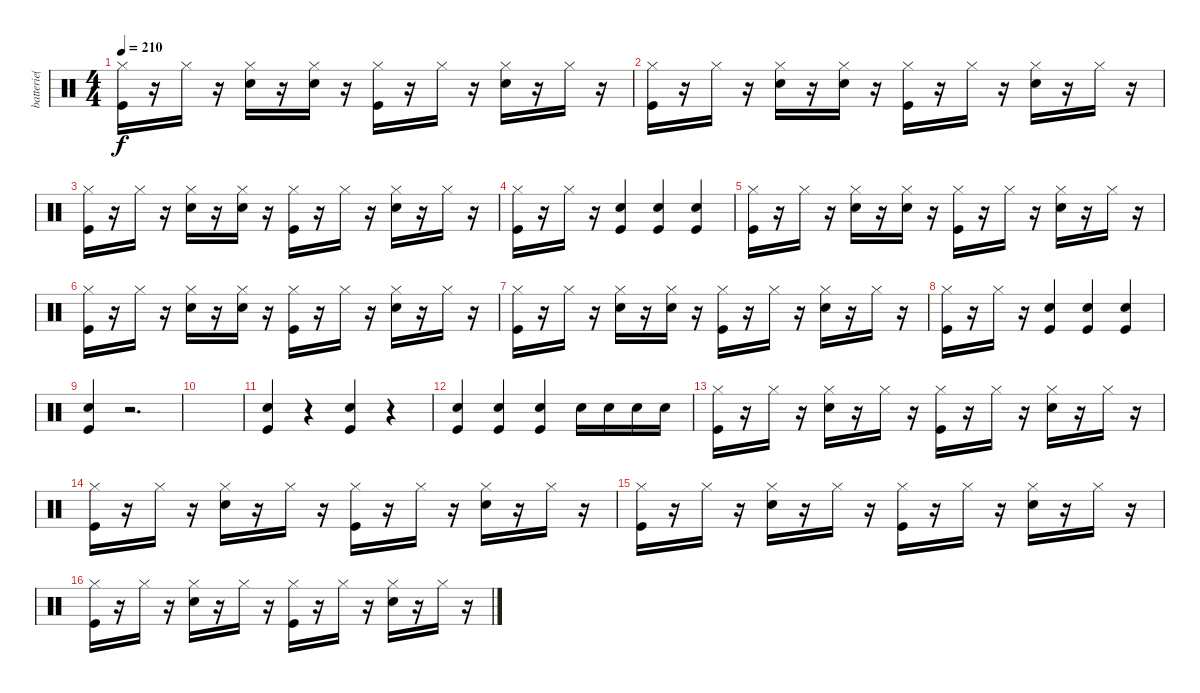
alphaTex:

\track ("batterie( Michael Davison )" "batterie( ") {instrument percussion}
\staff {score}
\articulation defaults
\ts (4 4)
\tempo 210
\clef neutral
\ks c
("Hi-Hat (closed)" "Kick (hit)").16{dy f} r.16 "Hi-Hat (closed)".16 r.16 ("Hi-Hat (closed)" "Snare (hit) 2").16 r.16 ("Hi-Hat (closed)" "Snare (hit) 2").16 r.16 ("Hi-Hat (closed)" "Kick (hit)").16 r.16 "Hi-Hat (closed)".16 r.16 ("Hi-Hat (closed)" "Snare (hit) 2").16 r.16 "Hi-Hat (closed)".16 r.16 |
("Hi-Hat (closed)" "Kick (hit)").16 r.16 "Hi-Hat (closed)".16 r.16 ("Hi-Hat (closed)" "Snare (hit) 2").16 r.16 ("Hi-Hat (closed)" "Snare (hit) 2").16 r.16 ("Hi-Hat (closed)" "Kick (hit)").16 r.16 "Hi-Hat (closed)".16 r.16 ("Hi-Hat (closed)" "Snare (hit) 2").16 r.16 "Hi-Hat (closed)".16 r.16 |
("Hi-Hat (closed)" "Kick (hit)").16 r.16 "Hi-Hat (closed)".16 r.16 ("Hi-Hat (closed)" "Snare (hit) 2").16 r.16 ("Hi-Hat (closed)" "Snare (hit) 2").16 r.16 ("Hi-Hat (closed)" "Kick (hit)").16 r.16 "Hi-Hat (closed)".16 r.16 ("Hi-Hat (closed)" "Snare (hit) 2").16 r.16 "Hi-Hat (closed)".16 r.16 |
("Hi-Hat (closed)" "Kick (hit)").16 r.16 "Hi-Hat (closed)".16 r.16 ("Snare (hit) 2" "Kick (hit)").4 ("Snare (hit) 2" "Kick (hit)").4 ("Snare (hit) 2" "Kick (hit)").4 |
("Hi-Hat (closed)" "Kick (hit)").16 r.16 "Hi-Hat (closed)".16 r.16 ("Hi-Hat (closed)" "Snare (hit) 2").16 r.16 ("Hi-Hat (closed)" "Snare (hit) 2").16 r.16 ("Hi-Hat (closed)" "Kick (hit)").16 r.16 "Hi-Hat (closed)".16 r.16 ("Hi-Hat (closed)" "Snare (hit) 2").16 r.16 "Hi-Hat (closed)".16 r.16 |
("Hi-Hat (closed)" "Kick (hit)").16 r.16 "Hi-Hat (closed)".16 r.16 ("Hi-Hat (closed)" "Snare (hit) 2").16 r.16 ("Hi-Hat (closed)" "Snare (hit) 2").16 r.16 ("Hi-Hat (closed)" "Kick (hit)").16 r.16 "Hi-Hat (closed)".16 r.16 ("Hi-Hat (closed)" "Snare (hit) 2").16 r.16 "Hi-Hat (closed)".16 r.16 |
("Hi-Hat (closed)" "Kick (hit)").16 r.16 "Hi-Hat (closed)".16 r.16 ("Hi-Hat (closed)" "Snare (hit) 2").16 r.16 ("Hi-Hat (closed)" "Snare (hit) 2").16 r.16 ("Hi-Hat (closed)" "Kick (hit)").16 r.16 "Hi-Hat (closed)".16 r.16 ("Hi-Hat (closed)" "Snare (hit) 2").16 r.16 "Hi-Hat (closed)".16 r.16 |
("Hi-Hat (closed)" "Kick (hit)").16 r.16 "Hi-Hat (closed)".16 r.16 ("Snare (hit) 2" "Kick (hit)").4 ("Snare (hit) 2" "Kick (hit)").4 ("Snare (hit) 2" "Kick (hit)").4 |
("Snare (hit) 2" "Kick (hit)").4 r.2{d} |
|
("Snare (hit) 2" "Kick (hit)").4 r.4 ("Snare (hit) 2" "Kick (hit)").4 r.4 |
("Snare (hit) 2" "Kick (hit)").4 ("Snare (hit) 2" "Kick (hit)").4 ("Snare (hit) 2" "Kick (hit)").4 "Snare (hit) 2".16 "Snare (hit) 2".16 "Snare (hit) 2".16 "Snare (hit) 2".16 |
("Hi-Hat (closed)" "Kick (hit)").16 r.16 "Hi-Hat (closed)".16 r.16 ("Hi-Hat (closed)" "Snare (hit) 2").16 r.16 "Hi-Hat (closed)".16 r.16 ("Hi-Hat (closed)" "Kick (hit)").16 r.16 "Hi-Hat (closed)".16 r.16 ("Hi-Hat (closed)" "Snare (hit) 2").16 r.16 "Hi-Hat (closed)".16 r.16 |
("Hi-Hat (closed)" "Kick (hit)").16 r.16 "Hi-Hat (closed)".16 r.16 ("Hi-Hat (closed)" "Snare (hit) 2").16 r.16 "Hi-Hat (closed)".16 r.16 ("Hi-Hat (closed)" "Kick (hit)").16 r.16 "Hi-Hat (closed)".16 r.16 ("Hi-Hat (closed)" "Snare (hit) 2").16 r.16 "Hi-Hat (closed)".16 r.16 |
("Hi-Hat (closed)" "Kick (hit)").16 r.16 "Hi-Hat (closed)".16 r.16 ("Hi-Hat (closed)" "Snare (hit) 2").16 r.16 "Hi-Hat (closed)".16 r.16 ("Hi-Hat (closed)" "Kick (hit)").16 r.16 "Hi-Hat (closed)".16 r.16 ("Hi-Hat (closed)" "Snare (hit) 2").16 r.16 "Hi-Hat (closed)".16 r.16 |
("Hi-Hat (closed)" "Kick (hit)").16 r.16 "Hi-Hat (closed)".16 r.16 ("Hi-Hat (closed)" "Snare (hit) 2").16 r.16 "Hi-Hat (closed)".16 r.16 ("Hi-Hat (closed)" "Kick (hit)").16 r.16 "Hi-Hat (closed)".16 r.16 ("Hi-Hat (closed)" "Snare (hit) 2").16 r.16 "Hi-Hat (closed)".16 r.16
